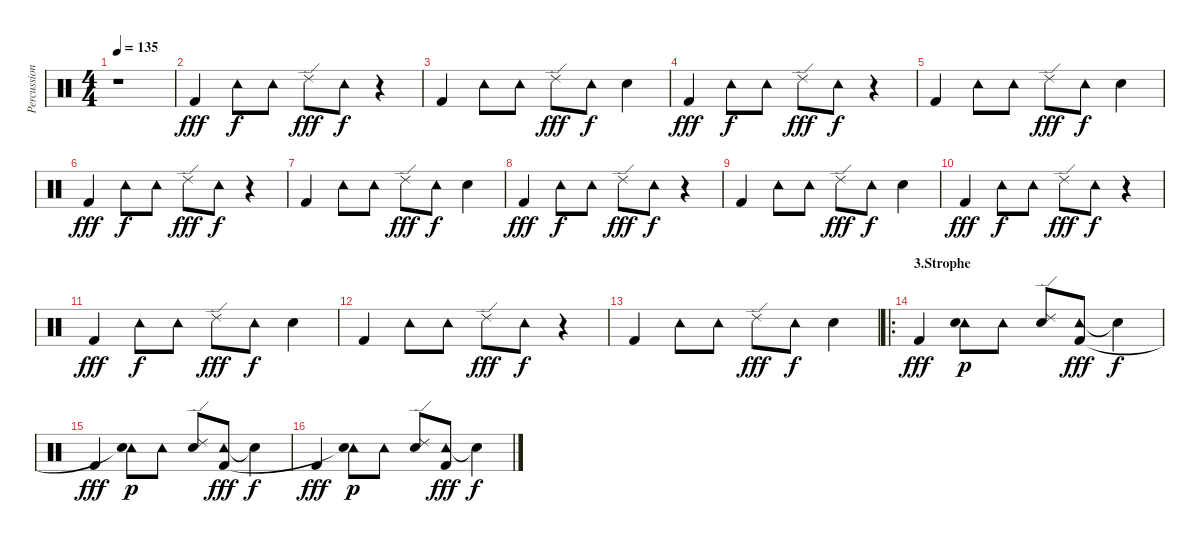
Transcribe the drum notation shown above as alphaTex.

\track ("Percussion" "Percussion") {instrument percussion}
\staff {score}
\articulation defaults
\ts (4 4)
\tempo 135
\clef neutral
\ks c
r.1{dy fff} |
"Kick (hit) 2".4 "Tambourine (hit)".8{dy f} "Tambourine (hit)".8 "Ride (edge) 2".8{dy fff} "Tambourine (hit)".8{dy f} r.4 |
"Kick (hit) 2".4 "Tambourine (hit)".8 "Tambourine (hit)".8 "Ride (edge) 2".8{dy fff} "Tambourine (hit)".8{dy f} "Snare (hit) 2".4 |
"Kick (hit) 2".4{dy fff} "Tambourine (hit)".8{dy f} "Tambourine (hit)".8 "Ride (edge) 2".8{dy fff} "Tambourine (hit)".8{dy f} r.4 |
"Kick (hit) 2".4 "Tambourine (hit)".8 "Tambourine (hit)".8 "Ride (edge) 2".8{dy fff} "Tambourine (hit)".8{dy f} "Snare (hit) 2".4 |
"Kick (hit) 2".4{dy fff} "Tambourine (hit)".8{dy f} "Tambourine (hit)".8 "Ride (edge) 2".8{dy fff} "Tambourine (hit)".8{dy f} r.4 |
"Kick (hit) 2".4 "Tambourine (hit)".8 "Tambourine (hit)".8 "Ride (edge) 2".8{dy fff} "Tambourine (hit)".8{dy f} "Snare (hit) 2".4 |
"Kick (hit) 2".4{dy fff} "Tambourine (hit)".8{dy f} "Tambourine (hit)".8 "Ride (edge) 2".8{dy fff} "Tambourine (hit)".8{dy f} r.4 |
"Kick (hit) 2".4 "Tambourine (hit)".8 "Tambourine (hit)".8 "Ride (edge) 2".8{dy fff} "Tambourine (hit)".8{dy f} "Snare (hit) 2".4 |
"Kick (hit) 2".4{dy fff} "Tambourine (hit)".8{dy f} "Tambourine (hit)".8 "Ride (edge) 2".8{dy fff} "Tambourine (hit)".8{dy f} r.4 |
"Kick (hit) 2".4{dy fff} "Tambourine (hit)".8{dy f} "Tambourine (hit)".8 "Ride (edge) 2".8{dy fff} "Tambourine (hit)".8{dy f} "Snare (hit) 2".4 |
"Kick (hit) 2".4 "Tambourine (hit)".8 "Tambourine (hit)".8 "Ride (edge) 2".8{dy fff} "Tambourine (hit)".8{dy f} r.4 |
"Kick (hit) 2".4 "Tambourine (hit)".8 "Tambourine (hit)".8 "Ride (edge) 2".8{dy fff} "Tambourine (hit)".8{dy f} "Snare (hit) 2".4 |
\ro
\section ("" "3.Strophe")
"Kick (hit) 2".4{dy fff} ("Tambourine (hit)" "Snare (hit)").8{dy p} "Tambourine (hit)".8 ("Snare (hit) 2" "Ride (edge) 2").8 ("Tambourine (hit)" "Kick (hit) 2").8{dy fff} "Snare (hit)"{t}.4{dy f} |
"Kick (hit) 2".4{dy fff} ("Tambourine (hit)" "Snare (hit)"{t}).8{dy p} "Tambourine (hit)".8 ("Snare (hit) 2" "Ride (edge) 2").8 ("Tambourine (hit)" "Kick (hit) 2").8{dy fff} "Snare (hit)"{t}.4{dy f} |
"Kick (hit) 2".4{dy fff} ("Tambourine (hit)" "Snare (hit)"{t}).8{dy p} "Tambourine (hit)".8 ("Snare (hit) 2" "Ride (edge) 2").8 ("Tambourine (hit)" "Kick (hit) 2").8{dy fff} "Snare (hit)"{t}.4{dy f}
